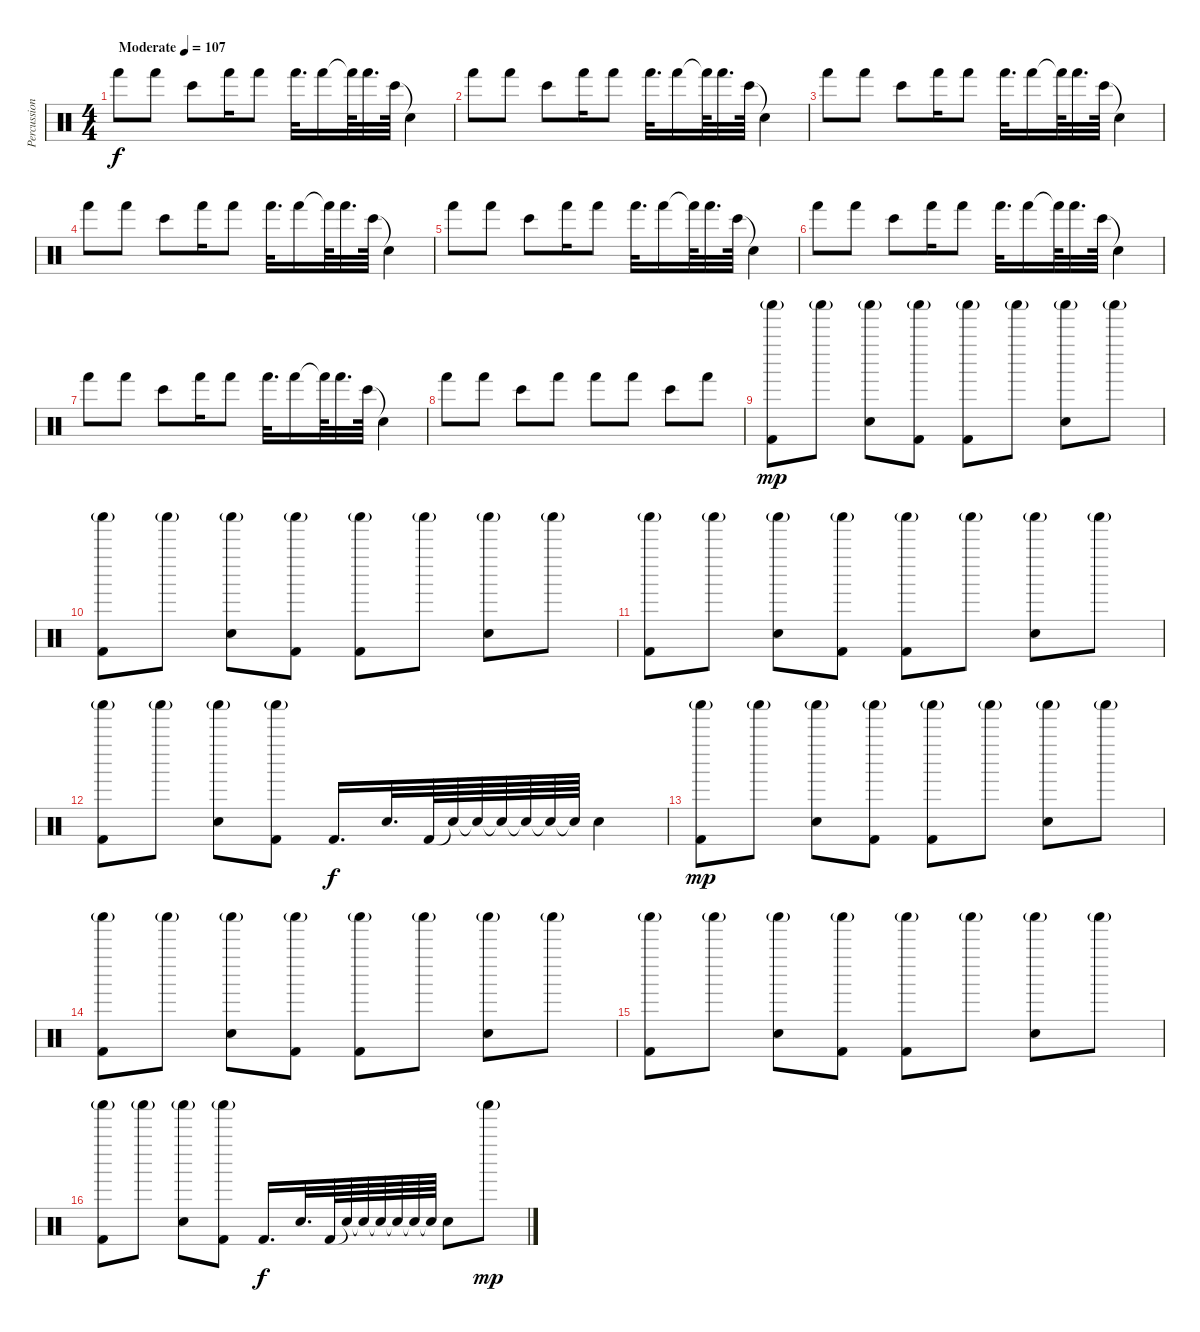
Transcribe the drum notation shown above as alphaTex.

\track ("Percussion" "Percussion") {instrument percussion}
\staff {score}
\articulation defaults
\ts (4 4)
\tempo (107 "Moderate")
\clef neutral
\ks c "Hand (hit)".8{dy f} "Hand (hit)".8 "Bongo High (hit)".8 "Hand (hit)".16 "Hand (hit)".8 "Hand (hit)".32{d} "Hand (hit)".16 "Hand (hit)"{t}.64 "Hand (hit)".32{d} "Bongo High (hit)".64 "Snare (hit)"{t}.4
|
"Hand (hit)".8 "Hand (hit)".8 "Bongo High (hit)".8 "Hand (hit)".16 "Hand (hit)".8 "Hand (hit)".32{d} "Hand (hit)".16 "Hand (hit)"{t}.64 "Hand (hit)".32{d} "Bongo High (hit)".64 "Snare (hit)"{t}.4 |
"Hand (hit)".8 "Hand (hit)".8 "Bongo High (hit)".8 "Hand (hit)".16 "Hand (hit)".8 "Hand (hit)".32{d} "Hand (hit)".16 "Hand (hit)"{t}.64 "Hand (hit)".32{d} "Bongo High (hit)".64 "Snare (hit)"{t}.4 |
"Hand (hit)".8 "Hand (hit)".8 "Bongo High (hit)".8 "Hand (hit)".16 "Hand (hit)".8 "Hand (hit)".32{d} "Hand (hit)".16 "Hand (hit)"{t}.64 "Hand (hit)".32{d} "Bongo High (hit)".64 "Snare (hit)"{t}.4 |
"Hand (hit)".8 "Hand (hit)".8 "Bongo High (hit)".8 "Hand (hit)".16 "Hand (hit)".8 "Hand (hit)".32{d} "Hand (hit)".16 "Hand (hit)"{t}.64 "Hand (hit)".32{d} "Bongo High (hit)".64 "Snare (hit)"{t}.4 |
"Hand (hit)".8 "Hand (hit)".8 "Bongo High (hit)".8 "Hand (hit)".16 "Hand (hit)".8 "Hand (hit)".32{d} "Hand (hit)".16 "Hand (hit)"{t}.64 "Hand (hit)".32{d} "Bongo High (hit)".64 "Snare (hit)"{t}.4 |
"Hand (hit)".8 "Hand (hit)".8 "Bongo High (hit)".8 "Hand (hit)".16 "Hand (hit)".8 "Hand (hit)".32{d} "Hand (hit)".16 "Hand (hit)"{t}.64 "Hand (hit)".32{d} "Bongo High (hit)".64 "Snare (hit)"{t}.4 |
"Hand (hit)".8 "Hand (hit)".8 "Bongo High (hit)".8 "Hand (hit)".8 "Hand (hit)".8 "Hand (hit)".8 "Bongo High (hit)".8 "Hand (hit)".8 |
("Shaker (hit)"{g} "Kick (hit) 2").8{dy mp} "Shaker (hit)"{g}.8 ("Shaker (hit)"{g} "Electric Snare (hit)").8 ("Shaker (hit)"{g} "Kick (hit) 2").8 ("Shaker (hit)"{g} "Kick (hit) 2").8 "Shaker (hit)"{g}.8 ("Shaker (hit)"{g} "Electric Snare (hit)").8 "Shaker (hit)"{g}.8 |
("Shaker (hit)"{g} "Kick (hit) 2").8 "Shaker (hit)"{g}.8 ("Shaker (hit)"{g} "Electric Snare (hit)").8 ("Shaker (hit)"{g} "Kick (hit) 2").8 ("Shaker (hit)"{g} "Kick (hit) 2").8 "Shaker (hit)"{g}.8 ("Shaker (hit)"{g} "Electric Snare (hit)").8 "Shaker (hit)"{g}.8 |
("Shaker (hit)"{g} "Kick (hit) 2").8 "Shaker (hit)"{g}.8 ("Shaker (hit)"{g} "Electric Snare (hit)").8 ("Shaker (hit)"{g} "Kick (hit) 2").8 ("Shaker (hit)"{g} "Kick (hit) 2").8 "Shaker (hit)"{g}.8 ("Shaker (hit)"{g} "Electric Snare (hit)").8 "Shaker (hit)"{g}.8 |
("Shaker (hit)"{g} "Kick (hit) 2").8 "Shaker (hit)"{g}.8 ("Shaker (hit)"{g} "Electric Snare (hit)").8 ("Shaker (hit)"{g} "Kick (hit) 2").8 "Kick (hit) 2".16{d dy f} "Electric Snare (hit)".32{d} "Kick (hit) 2".64 "Snare (hit)"{t}.64 "Snare (hit)"{t}.64 "Snare (hit)"{t}.64 "Snare (hit)"{t}.64 "Snare (hit)"{t}.64 "Snare (hit)"{t}.64 "Electric Snare (hit)".4 |
("Shaker (hit)"{g} "Kick (hit) 2").8{dy mp} "Shaker (hit)"{g}.8 ("Shaker (hit)"{g} "Electric Snare (hit)").8 ("Shaker (hit)"{g} "Kick (hit) 2").8 ("Shaker (hit)"{g} "Kick (hit) 2").8 "Shaker (hit)"{g}.8 ("Shaker (hit)"{g} "Electric Snare (hit)").8 "Shaker (hit)"{g}.8 |
("Shaker (hit)"{g} "Kick (hit) 2").8 "Shaker (hit)"{g}.8 ("Shaker (hit)"{g} "Electric Snare (hit)").8 ("Shaker (hit)"{g} "Kick (hit) 2").8 ("Shaker (hit)"{g} "Kick (hit) 2").8 "Shaker (hit)"{g}.8 ("Shaker (hit)"{g} "Electric Snare (hit)").8 "Shaker (hit)"{g}.8 |
("Shaker (hit)"{g} "Kick (hit) 2").8 "Shaker (hit)"{g}.8 ("Shaker (hit)"{g} "Electric Snare (hit)").8 ("Shaker (hit)"{g} "Kick (hit) 2").8 ("Shaker (hit)"{g} "Kick (hit) 2").8 "Shaker (hit)"{g}.8 ("Shaker (hit)"{g} "Electric Snare (hit)").8 "Shaker (hit)"{g}.8 |
("Shaker (hit)"{g} "Kick (hit) 2").8 "Shaker (hit)"{g}.8 ("Shaker (hit)"{g} "Electric Snare (hit)").8 ("Shaker (hit)"{g} "Kick (hit) 2").8 "Kick (hit) 2".16{d dy f} "Electric Snare (hit)".32{d} "Kick (hit) 2".64 "Snare (hit)"{t}.64 "Snare (hit)"{t}.64 "Snare (hit)"{t}.64 "Snare (hit)"{t}.64 "Snare (hit)"{t}.64 "Snare (hit)"{t}.64 "Electric Snare (hit)".8 "Shaker (hit)"{g}.8{dy mp}
